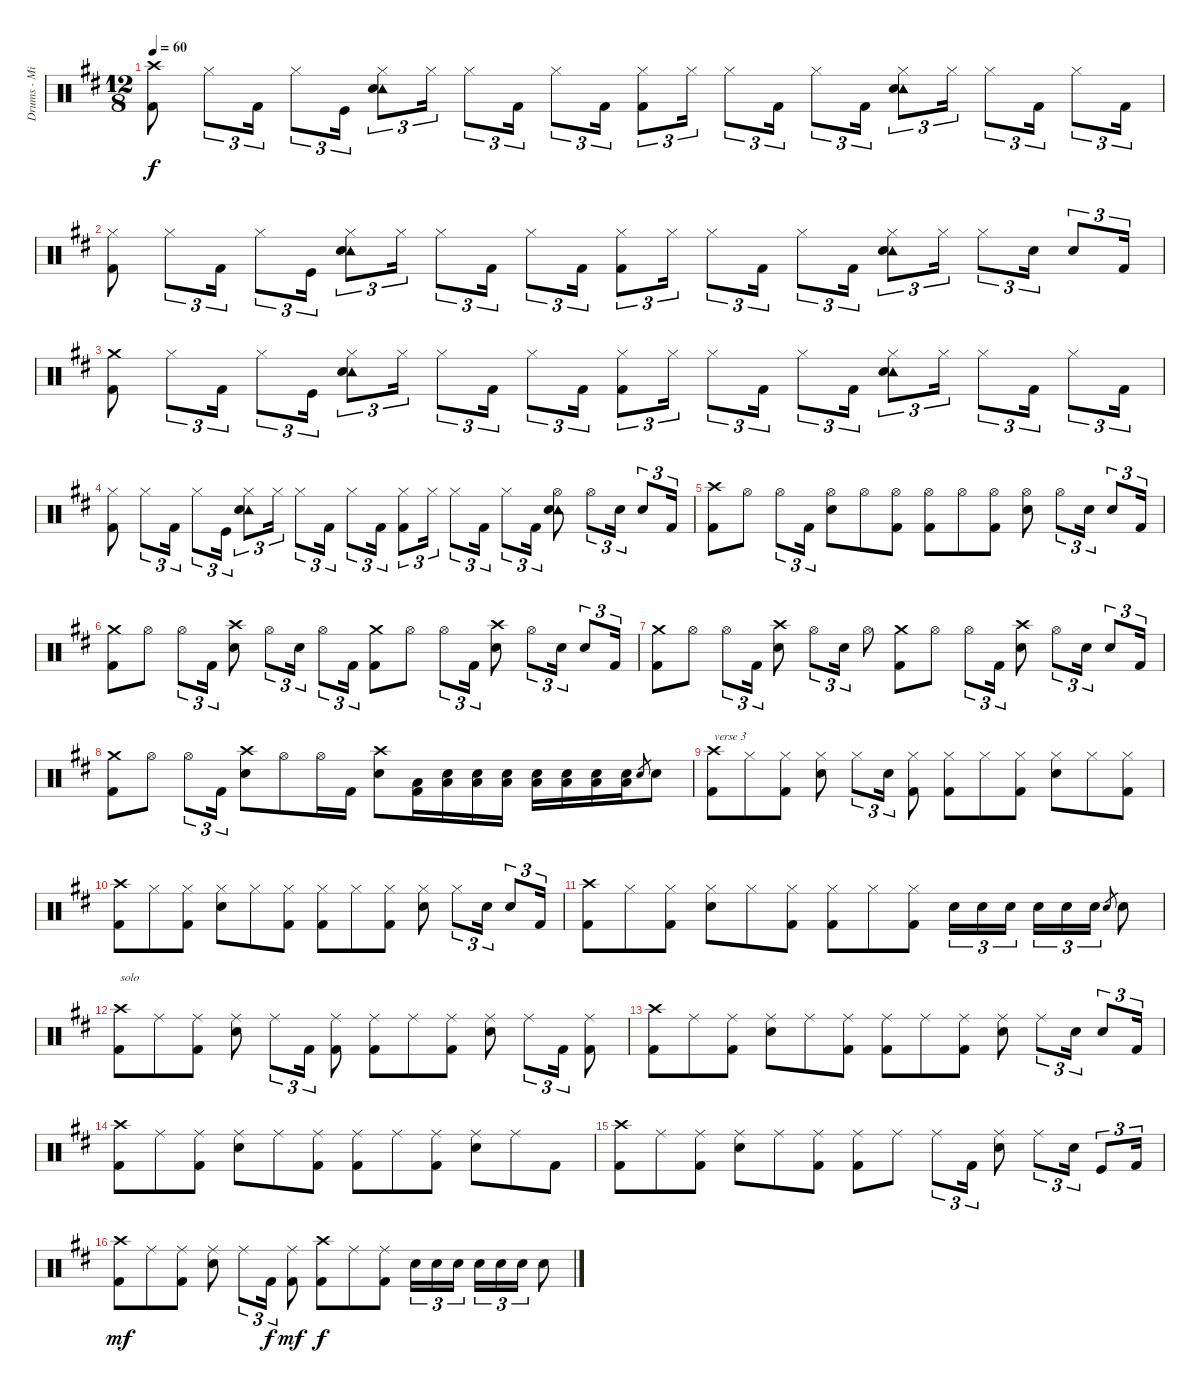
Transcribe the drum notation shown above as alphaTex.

\track ("Drums - Mike Portnoy" "Drums - Mi") {instrument percussion}
\staff {score}
\articulation defaults
\ts (12 8)
\tempo 60
\clef neutral
\ks bminor
("Crash high (hit)" "Kick (hit) 2").8{dy f} "Hi-Hat (closed)".8{tu (3 2)} "Kick (hit) 2".16{tu (3 2)} "Hi-Hat (closed)".8{tu (3 2)} "Kick (hit)".16{tu (3 2)} ("Hi-Hat (closed)" "Tambourine (hit)" "Snare (hit) 2").8{tu (3 2)} "Hi-Hat (closed)".16{tu (3 2)} "Hi-Hat (closed)".8{tu (3 2)} "Kick (hit) 2".16{tu (3 2)} "Hi-Hat (closed)".8{tu (3 2)} "Kick (hit) 2".16{tu (3 2)} ("Hi-Hat (closed)" "Kick (hit) 2").8{tu (3 2)} "Hi-Hat (closed)".16{tu (3 2)} "Hi-Hat (closed)".8{tu (3 2)} "Kick (hit) 2".16{tu (3 2)} "Hi-Hat (closed)".8{tu (3 2)} "Kick (hit) 2".16{tu (3 2)} ("Hi-Hat (closed)" "Tambourine (hit)" "Snare (hit) 2").8{tu (3 2)} "Hi-Hat (closed)".16{tu (3 2)} "Hi-Hat (closed)".8{tu (3 2)} "Kick (hit) 2".16{tu (3 2)} "Hi-Hat (closed)".8{tu (3 2)} "Kick (hit) 2".16{tu (3 2)} |
("Hi-Hat (closed)" "Kick (hit) 2").8 "Hi-Hat (closed)".8{tu (3 2)} "Kick (hit) 2".16{tu (3 2)} "Hi-Hat (closed)".8{tu (3 2)} "Kick (hit)".16{tu (3 2)} ("Hi-Hat (closed)" "Tambourine (hit)" "Snare (hit) 2").8{tu (3 2)} "Hi-Hat (closed)".16{tu (3 2)} "Hi-Hat (closed)".8{tu (3 2)} "Kick (hit) 2".16{tu (3 2)} "Hi-Hat (closed)".8{tu (3 2)} "Kick (hit) 2".16{tu (3 2)} ("Hi-Hat (closed)" "Kick (hit) 2").8{tu (3 2)} "Hi-Hat (closed)".16{tu (3 2)} "Hi-Hat (closed)".8{tu (3 2)} "Kick (hit) 2".16{tu (3 2)} "Hi-Hat (closed)".8{tu (3 2)} "Kick (hit) 2".16{tu (3 2)} ("Hi-Hat (closed)" "Tambourine (hit)" "Snare (hit) 2").8{tu (3 2)} "Hi-Hat (closed)".16{tu (3 2)} "Hi-Hat (closed)".8{tu (3 2)} "Snare (hit) 2".16{tu (3 2)} "Snare (hit) 2".8{tu (3 2)} "Kick (hit) 2".16{tu (3 2)} |
("Crash medium (hit)" "Kick (hit) 2").8 "Hi-Hat (closed)".8{tu (3 2)} "Kick (hit) 2".16{tu (3 2)} "Hi-Hat (closed)".8{tu (3 2)} "Kick (hit)".16{tu (3 2)} ("Hi-Hat (closed)" "Tambourine (hit)" "Snare (hit) 2").8{tu (3 2)} "Hi-Hat (closed)".16{tu (3 2)} "Hi-Hat (closed)".8{tu (3 2)} "Kick (hit) 2".16{tu (3 2)} "Hi-Hat (closed)".8{tu (3 2)} "Kick (hit) 2".16{tu (3 2)} ("Hi-Hat (closed)" "Kick (hit) 2").8{tu (3 2)} "Hi-Hat (closed)".16{tu (3 2)} "Hi-Hat (closed)".8{tu (3 2)} "Kick (hit) 2".16{tu (3 2)} "Hi-Hat (closed)".8{tu (3 2)} "Kick (hit) 2".16{tu (3 2)} ("Hi-Hat (closed)" "Tambourine (hit)" "Snare (hit) 2").8{tu (3 2)} "Hi-Hat (closed)".16{tu (3 2)} "Hi-Hat (closed)".8{tu (3 2)} "Kick (hit) 2".16{tu (3 2)} "Hi-Hat (closed)".8{tu (3 2)} "Kick (hit) 2".16{tu (3 2)} |
("Hi-Hat (closed)" "Kick (hit) 2").8 "Hi-Hat (closed)".8{tu (3 2)} "Kick (hit) 2".16{tu (3 2)} "Hi-Hat (closed)".8{tu (3 2)} "Kick (hit)".16{tu (3 2)} ("Hi-Hat (closed)" "Tambourine (hit)" "Snare (hit) 2").8{tu (3 2)} "Hi-Hat (closed)".16{tu (3 2)} "Hi-Hat (closed)".8{tu (3 2)} "Kick (hit) 2".16{tu (3 2)} "Hi-Hat (closed)".8{tu (3 2)} "Kick (hit) 2".16{tu (3 2)} ("Hi-Hat (closed)" "Kick (hit) 2").8{tu (3 2)} "Hi-Hat (closed)".16{tu (3 2)} "Hi-Hat (closed)".8{tu (3 2)} "Kick (hit) 2".16{tu (3 2)} "Hi-Hat (closed)".8{tu (3 2)} "Kick (hit) 2".16{tu (3 2)} ("Hi-Hat (open)" "Tambourine (hit)" "Snare (hit) 2").8 "Hi-Hat (open)".8{tu (3 2)} "Snare (hit) 2".16{tu (3 2)} "Snare (hit) 2".8{tu (3 2)} "Kick (hit) 2".16{tu (3 2)} |
("Crash high (hit)" "Kick (hit) 2").8 "Hi-Hat (open)".8 "Hi-Hat (open)".8{tu (3 2)} "Kick (hit) 2".16{tu (3 2)} ("Hi-Hat (open)" "Snare (hit) 2").8 "Hi-Hat (open)".8 ("Hi-Hat (open)" "Kick (hit) 2").8 ("Hi-Hat (open)" "Kick (hit) 2").8 "Hi-Hat (open)".8 ("Hi-Hat (open)" "Kick (hit) 2").8 ("Hi-Hat (open)" "Snare (hit) 2").8 "Hi-Hat (open)".8{tu (3 2)} "Snare (hit) 2".16{tu (3 2)} "Snare (hit) 2".8{tu (3 2)} "Kick (hit) 2".16{tu (3 2)} |
\ks d
("Crash medium (hit)" "Kick (hit) 2").8 "Hi-Hat (open)".8 "Hi-Hat (open)".8{tu (3 2)} "Kick (hit) 2".16{tu (3 2)} ("Crash high (hit)" "Snare (hit) 2").8 "Hi-Hat (open)".8{tu (3 2)} "Snare (hit) 2".16{tu (3 2)} "Hi-Hat (open)".8{tu (3 2)} "Kick (hit) 2".16{tu (3 2)} ("Crash medium (hit)" "Kick (hit) 2").8 "Hi-Hat (open)".8 "Hi-Hat (open)".8{tu (3 2)} "Kick (hit) 2".16{tu (3 2)} ("Crash high (hit)" "Snare (hit) 2").8 "Hi-Hat (open)".8{tu (3 2)} "Snare (hit) 2".16{tu (3 2)} "Snare (hit) 2".8{tu (3 2)} "Kick (hit) 2".16{tu (3 2)} |
("Crash medium (hit)" "Kick (hit) 2").8 "Hi-Hat (open)".8 "Hi-Hat (open)".8{tu (3 2)} "Kick (hit) 2".16{tu (3 2)} ("Crash high (hit)" "Snare (hit) 2").8 "Hi-Hat (open)".8{tu (3 2)} "Snare (hit) 2".16{tu (3 2)} "Hi-Hat (open)".8 ("Crash medium (hit)" "Kick (hit) 2").8 "Hi-Hat (open)".8 "Hi-Hat (open)".8{tu (3 2)} "Kick (hit) 2".16{tu (3 2)} ("Crash high (hit)" "Snare (hit) 2").8 "Hi-Hat (open)".8{tu (3 2)} "Snare (hit) 2".16{tu (3 2)} "Snare (hit) 2".8{tu (3 2)} "Kick (hit) 2".16{tu (3 2)} |
("Crash medium (hit)" "Kick (hit) 2").8 "Hi-Hat (open)".8 "Hi-Hat (open)".8{tu (3 2)} "Kick (hit) 2".16{tu (3 2)} ("Crash high (hit)" "Snare (hit) 2").8 "Hi-Hat (open)".8 "Hi-Hat (open)".16 "Kick (hit) 2".16 ("Crash high (hit)" "Snare (hit) 2").8 ("Low Floor Tom (hit)" "Kick (hit) 2").16 ("Low Floor Tom (hit)" "Snare (hit) 2").16 ("Low Floor Tom (hit)" "Snare (hit) 2").16 ("Low Floor Tom (hit)" "Snare (hit) 2").16 ("Low Floor Tom (hit)" "Snare (hit) 2").16 ("Low Floor Tom (hit)" "Snare (hit) 2").16 ("Low Floor Tom (hit)" "Snare (hit) 2").16 ("Low Floor Tom (hit)" "Snare (hit) 2").16 "Snare (hit) 2".8{gr} "Snare (hit) 2".8 |
("Crash high (hit)" "Kick (hit) 2").8{txt "verse 3"} "Hi-Hat (closed)".8 ("Hi-Hat (closed)" "Kick (hit) 2").8 ("Hi-Hat (closed)" "Snare (hit) 2").8 "Hi-Hat (closed)".8{tu (3 2)} "Snare (hit) 2".16{tu (3 2)} ("Hi-Hat (closed)" "Kick (hit) 2").8 ("Hi-Hat (closed)" "Kick (hit) 2").8 "Hi-Hat (closed)".8 ("Hi-Hat (closed)" "Kick (hit) 2").8 ("Hi-Hat (closed)" "Snare (hit) 2").8 "Hi-Hat (closed)".8 ("Hi-Hat (closed)" "Kick (hit) 2").8 |
("Crash high (hit)" "Kick (hit) 2").8 "Hi-Hat (closed)".8 ("Hi-Hat (closed)" "Kick (hit) 2").8 ("Hi-Hat (closed)" "Snare (hit) 2").8 "Hi-Hat (closed)".8 ("Hi-Hat (closed)" "Kick (hit) 2").8 ("Hi-Hat (closed)" "Kick (hit) 2").8 "Hi-Hat (closed)".8 ("Hi-Hat (closed)" "Kick (hit) 2").8 ("Hi-Hat (closed)" "Snare (hit) 2").8 "Hi-Hat (closed)".8{tu (3 2)} "Snare (hit) 2".16{tu (3 2)} "Snare (hit) 2".8{tu (3 2)} "Kick (hit) 2".16{tu (3 2)} |
("Crash high (hit)" "Kick (hit) 2").8 "Hi-Hat (closed)".8 ("Hi-Hat (closed)" "Kick (hit) 2").8 ("Hi-Hat (closed)" "Snare (hit) 2").8 "Hi-Hat (closed)".8 ("Hi-Hat (closed)" "Kick (hit) 2").8 ("Hi-Hat (closed)" "Kick (hit) 2").8 "Hi-Hat (closed)".8 ("Hi-Hat (closed)" "Kick (hit) 2").8 "Snare (hit) 2".16{tu (3 2)} "Snare (hit) 2".16{tu (3 2)} "Snare (hit) 2".16{tu (3 2) beam splitsecondary} "Snare (hit) 2".16{tu (3 2)} "Snare (hit) 2".16{tu (3 2)} "Snare (hit) 2".16{tu (3 2)} "Snare (hit) 2".8{gr} "Snare (hit) 2".8 |
("Crash high (hit)" "Kick (hit) 2").8{txt "solo"} "Ride (middle)".8 ("Ride (middle)" "Kick (hit) 2").8 ("Ride (middle)" "Snare (hit) 2").8 "Ride (middle)".8{tu (3 2)} "Kick (hit) 2".16{tu (3 2)} ("Ride (middle)" "Kick (hit) 2").8 ("Ride (middle)" "Kick (hit) 2").8 "Ride (middle)".8 ("Ride (middle)" "Kick (hit) 2").8 ("Ride (middle)" "Snare (hit) 2").8 "Ride (middle)".8{tu (3 2)} "Kick (hit) 2".16{tu (3 2)} ("Ride (middle)" "Kick (hit) 2").8 |
("Crash high (hit)" "Kick (hit) 2").8 "Ride (middle)".8 ("Ride (middle)" "Kick (hit) 2").8 ("Ride (middle)" "Snare (hit) 2").8 "Ride (middle)".8 ("Ride (middle)" "Kick (hit) 2").8 ("Ride (middle)" "Kick (hit) 2").8 "Ride (middle)".8 ("Ride (middle)" "Kick (hit) 2").8 ("Ride (middle)" "Snare (hit) 2").8 "Ride (middle)".8{tu (3 2)} "Snare (hit) 2".16{tu (3 2)} "Snare (hit) 2".8{tu (3 2)} "Kick (hit) 2".16{tu (3 2)} |
("Crash high (hit)" "Kick (hit) 2").8 "Ride (middle)".8 ("Ride (middle)" "Kick (hit) 2").8 ("Ride (middle)" "Snare (hit) 2").8 "Ride (middle)".8 ("Ride (middle)" "Kick (hit) 2").8 ("Ride (middle)" "Kick (hit) 2").8 "Ride (middle)".8 ("Ride (middle)" "Kick (hit) 2").8 ("Ride (middle)" "Snare (hit) 2").8 "Ride (middle)".8 "Kick (hit) 2".8 |
("Crash high (hit)" "Kick (hit) 2").8 "Ride (middle)".8 ("Ride (middle)" "Kick (hit) 2").8 ("Ride (middle)" "Snare (hit) 2").8 "Ride (middle)".8 ("Ride (middle)" "Kick (hit) 2").8 ("Ride (middle)" "Kick (hit) 2").8 "Ride (middle)".8 "Ride (middle)".8{tu (3 2)} "Kick (hit) 2".16{tu (3 2)} ("Ride (middle)" "Snare (hit) 2").8 "Ride (middle)".8{tu (3 2)} "Snare (hit) 2".16{tu (3 2)} "Kick (hit)".8{tu (3 2)} "Kick (hit) 2".16{tu (3 2)} |
("Crash high (hit)" "Kick (hit) 2").8{dy mf} "Ride (middle)".8 ("Ride (middle)" "Kick (hit) 2").8 ("Ride (middle)" "Snare (hit) 2").8 "Ride (middle)".8{tu (3 2)} "Kick (hit) 2".16{tu (3 2) dy f} ("Ride (middle)" "Kick (hit) 2").8{dy mf} ("Crash high (hit)" "Kick (hit) 2").8{dy f} "Ride (middle)".8 ("Ride (middle)" "Kick (hit) 2").8 "Snare (hit) 2".16{tu (3 2)} "Snare (hit) 2".16{tu (3 2)} "Snare (hit) 2".16{tu (3 2) beam splitsecondary} "Snare (hit) 2".16{tu (3 2)} "Snare (hit) 2".16{tu (3 2)} "Snare (hit) 2".16{tu (3 2)} "Snare (hit) 2".8
